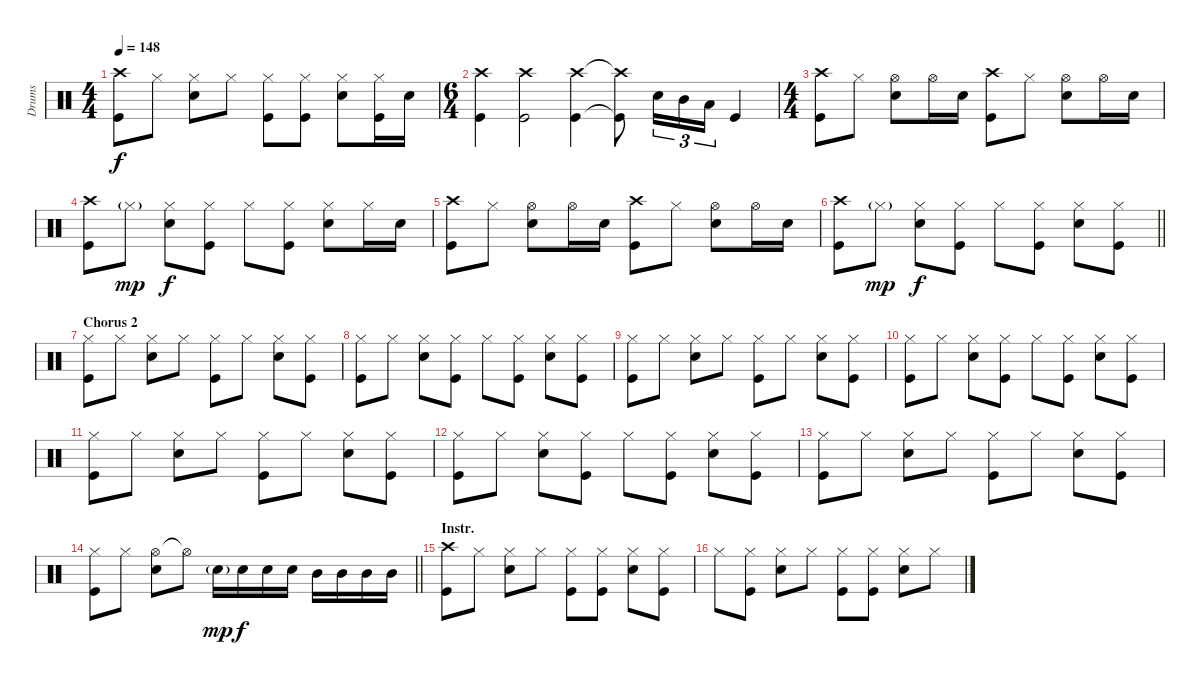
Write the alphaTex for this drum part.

\track ("Drums" "Drums") {instrument percussion}
\staff
\articulation defaults
\ts (4 4)
\tempo 148
\clef neutral
\ks c
("Crash high (hit)" "Kick (hit)").8{dy f} "Hi-Hat (closed)".8 ("Hi-Hat (closed)" "Snare (hit) 2").8 "Hi-Hat (closed)".8 ("Hi-Hat (closed)" "Kick (hit)").8 ("Hi-Hat (closed)" "Kick (hit)").8 ("Hi-Hat (closed)" "Snare (hit) 2").8 ("Hi-Hat (closed)" "Kick (hit)").16 "Snare (hit) 2".16 |
\ts (6 4)
("Crash high (hit)" "Kick (hit)").4 ("Crash high (hit)" "Kick (hit)").2 ("Crash high (hit)" "Kick (hit)").4 ("Crash high (hit)"{t} "Kick (hit)"{t}).8 "Snare (hit) 2".16{tu (3 2)} "Mid Tom (hit)".16{tu (3 2)} "Low Tom (hit)".16{tu (3 2)} "Kick (hit)".4 |
\ts (4 4)
("Crash high (hit)" "Kick (hit)").8 "Hi-Hat (closed)".8 ("Hi-Hat (open)" "Snare (hit) 2").8 "Hi-Hat (open)".16 "Snare (hit) 2".16 ("Crash high (hit)" "Kick (hit)").8 "Hi-Hat (closed)".8 ("Hi-Hat (open)" "Snare (hit) 2").8 "Hi-Hat (open)".16 "Snare (hit) 2".16 |
("Crash high (hit)" "Kick (hit)").8 "Hi-Hat (closed)"{g}.8{dy mp} ("Hi-Hat (closed)" "Snare (hit) 2").8{dy f} ("Hi-Hat (closed)" "Kick (hit)").8 "Hi-Hat (closed)".8 ("Hi-Hat (closed)" "Kick (hit)").8 ("Hi-Hat (closed)" "Snare (hit) 2").8 "Hi-Hat (closed)".16 "Snare (hit) 2".16 |
("Crash high (hit)" "Kick (hit)").8 "Hi-Hat (closed)".8 ("Hi-Hat (open)" "Snare (hit) 2").8 "Hi-Hat (open)".16 "Snare (hit) 2".16 ("Crash high (hit)" "Kick (hit)").8 "Hi-Hat (closed)".8 ("Hi-Hat (open)" "Snare (hit) 2").8 "Hi-Hat (open)".16 "Snare (hit) 2".16 |
\barLineRight lightlight
("Crash high (hit)" "Kick (hit)").8 "Hi-Hat (closed)"{g}.8{dy mp} ("Hi-Hat (closed)" "Snare (hit) 2").8{dy f} ("Hi-Hat (closed)" "Kick (hit)").8 "Hi-Hat (closed)".8 ("Hi-Hat (closed)" "Kick (hit)").8 ("Hi-Hat (closed)" "Snare (hit) 2").8 ("Hi-Hat (closed)" "Kick (hit)").8 |
\section ("" "Chorus 2")
("Hi-Hat (closed)" "Kick (hit)").8 "Hi-Hat (closed)".8 ("Hi-Hat (closed)" "Snare (hit) 2").8 "Hi-Hat (closed)".8 ("Hi-Hat (closed)" "Kick (hit)").8 "Hi-Hat (closed)".8 ("Hi-Hat (closed)" "Snare (hit) 2").8 ("Hi-Hat (closed)" "Kick (hit)").8 |
("Hi-Hat (closed)" "Kick (hit)").8 "Hi-Hat (closed)".8 ("Hi-Hat (closed)" "Snare (hit) 2").8 ("Hi-Hat (closed)" "Kick (hit)").8 "Hi-Hat (closed)".8 ("Hi-Hat (closed)" "Kick (hit)").8 ("Hi-Hat (closed)" "Snare (hit) 2").8 ("Hi-Hat (closed)" "Kick (hit)").8 |
("Hi-Hat (closed)" "Kick (hit)").8 "Hi-Hat (closed)".8 ("Hi-Hat (closed)" "Snare (hit) 2").8 "Hi-Hat (closed)".8 ("Hi-Hat (closed)" "Kick (hit)").8 "Hi-Hat (closed)".8 ("Hi-Hat (closed)" "Snare (hit) 2").8 ("Hi-Hat (closed)" "Kick (hit)").8 |
("Hi-Hat (closed)" "Kick (hit)").8 "Hi-Hat (closed)".8 ("Hi-Hat (closed)" "Snare (hit) 2").8 ("Hi-Hat (closed)" "Kick (hit)").8 "Hi-Hat (closed)".8 ("Hi-Hat (closed)" "Kick (hit)").8 ("Hi-Hat (closed)" "Snare (hit) 2").8 ("Hi-Hat (closed)" "Kick (hit)").8 |
("Hi-Hat (closed)" "Kick (hit)").8 "Hi-Hat (closed)".8 ("Hi-Hat (closed)" "Snare (hit) 2").8 "Hi-Hat (closed)".8 ("Hi-Hat (closed)" "Kick (hit)").8 "Hi-Hat (closed)".8 ("Hi-Hat (closed)" "Snare (hit) 2").8 ("Hi-Hat (closed)" "Kick (hit)").8 |
("Hi-Hat (closed)" "Kick (hit)").8 "Hi-Hat (closed)".8 ("Hi-Hat (closed)" "Snare (hit) 2").8 ("Hi-Hat (closed)" "Kick (hit)").8 "Hi-Hat (closed)".8 ("Hi-Hat (closed)" "Kick (hit)").8 ("Hi-Hat (closed)" "Snare (hit) 2").8 ("Hi-Hat (closed)" "Kick (hit)").8 |
("Hi-Hat (closed)" "Kick (hit)").8 "Hi-Hat (closed)".8 ("Hi-Hat (closed)" "Snare (hit) 2").8 "Hi-Hat (closed)".8 ("Hi-Hat (closed)" "Kick (hit)").8 "Hi-Hat (closed)".8 ("Hi-Hat (closed)" "Snare (hit) 2").8 ("Hi-Hat (closed)" "Kick (hit)").8 |
\barLineRight lightlight
("Hi-Hat (closed)" "Kick (hit)").8 "Hi-Hat (closed)".8 ("Hi-Hat (open)" "Snare (hit) 2").8 "Hi-Hat (open)"{t}.8 "Snare (hit) 2"{g}.16{dy mp} "Snare (hit) 2".16{dy f} "Snare (hit) 2".16 "Snare (hit) 2".16 "Mid Tom (hit)".16 "Mid Tom (hit)".16 "Mid Tom (hit)".16 "Mid Tom (hit)".16 |
\section ("" "Instr.")
("Crash high (hit)" "Kick (hit)").8 "Hi-Hat (closed)".8 ("Hi-Hat (closed)" "Snare (hit) 2").8 "Hi-Hat (closed)".8 ("Hi-Hat (closed)" "Kick (hit)").8 ("Hi-Hat (closed)" "Kick (hit)").8 ("Hi-Hat (closed)" "Snare (hit) 2").8 ("Hi-Hat (closed)" "Kick (hit)").8 |
"Hi-Hat (closed)".8 ("Hi-Hat (closed)" "Kick (hit)").8 ("Hi-Hat (closed)" "Snare (hit) 2").8 "Hi-Hat (closed)".8 ("Hi-Hat (closed)" "Kick (hit)").8 ("Hi-Hat (closed)" "Kick (hit)").8 ("Hi-Hat (closed)" "Snare (hit) 2").8 "Hi-Hat (closed)".8
